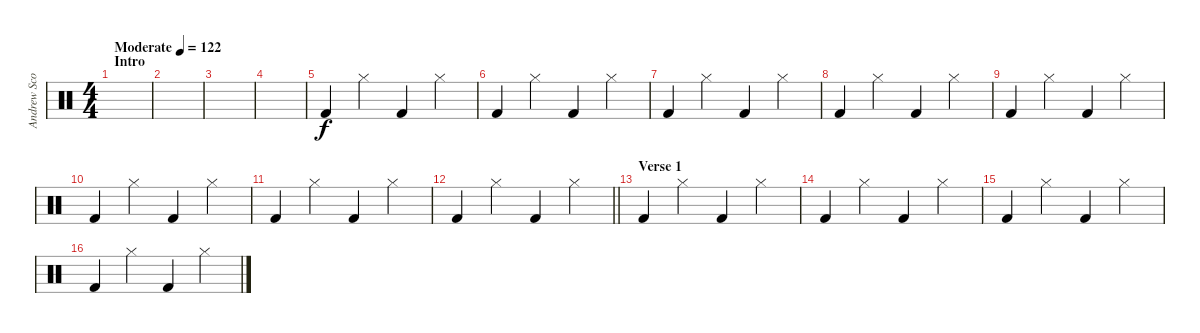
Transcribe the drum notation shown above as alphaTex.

\track ("Andrew Scott" "Andrew Sco") {instrument percussion}
\staff {score}
\articulation defaults
\ts (4 4)
\section ("" "Intro")
\tempo (122 "Moderate")
\clef neutral
\ks c
|
|
|
|
"Kick (hit) 2".4 "Hi-Hat (closed)".4 "Kick (hit) 2".4 "Hi-Hat (closed)".4 |
"Kick (hit) 2".4 "Hi-Hat (closed)".4 "Kick (hit) 2".4 "Hi-Hat (closed)".4 |
"Kick (hit) 2".4 "Hi-Hat (closed)".4 "Kick (hit) 2".4 "Hi-Hat (closed)".4 |
"Kick (hit) 2".4 "Hi-Hat (closed)".4 "Kick (hit) 2".4 "Hi-Hat (closed)".4 |
"Kick (hit) 2".4 "Hi-Hat (closed)".4 "Kick (hit) 2".4 "Hi-Hat (closed)".4 |
"Kick (hit) 2".4 "Hi-Hat (closed)".4 "Kick (hit) 2".4 "Hi-Hat (closed)".4 |
"Kick (hit) 2".4 "Hi-Hat (closed)".4 "Kick (hit) 2".4 "Hi-Hat (closed)".4 |
\barLineRight lightlight "Kick (hit) 2".4 "Hi-Hat (closed)".4 "Kick (hit) 2".4 "Hi-Hat (closed)".4
|
\section ("" "Verse 1")
"Kick (hit) 2".4 "Hi-Hat (closed)".4 "Kick (hit) 2".4 "Hi-Hat (closed)".4 |
"Kick (hit) 2".4 "Hi-Hat (closed)".4 "Kick (hit) 2".4 "Hi-Hat (closed)".4 |
"Kick (hit) 2".4 "Hi-Hat (closed)".4 "Kick (hit) 2".4 "Hi-Hat (closed)".4 |
"Kick (hit) 2".4 "Hi-Hat (closed)".4 "Kick (hit) 2".4 "Hi-Hat (closed)".4
